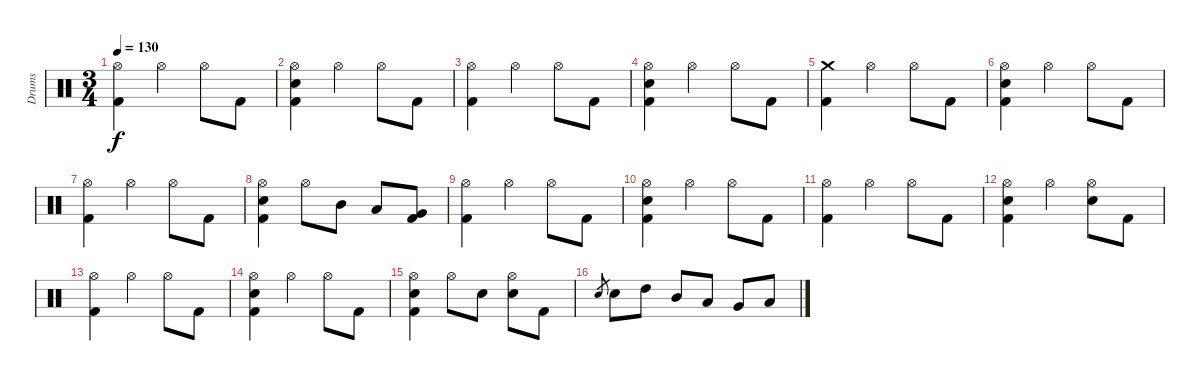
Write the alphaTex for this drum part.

\track ("Drums" "Drums") {instrument percussion}
\staff {score}
\articulation defaults
\ts (3 4)
\tempo 130
\clef neutral
\ks c
("Hi-Hat (open)" "Kick (hit) 2").4{dy f} "Hi-Hat (open)".4 "Hi-Hat (open)".8 "Kick (hit) 2".8 |
("Hi-Hat (open)" "Electric Snare (hit)" "Kick (hit) 2").4 "Hi-Hat (open)".4 "Hi-Hat (open)".8 "Kick (hit) 2".8 |
("Hi-Hat (open)" "Kick (hit) 2").4 "Hi-Hat (open)".4 "Hi-Hat (open)".8 "Kick (hit) 2".8 |
("Hi-Hat (open)" "Electric Snare (hit)" "Kick (hit) 2").4 "Hi-Hat (open)".4 "Hi-Hat (open)".8 "Kick (hit) 2".8 |
("Crash medium (hit)" "Kick (hit) 2").4 "Hi-Hat (open)".4 "Hi-Hat (open)".8 "Kick (hit) 2".8 |
("Hi-Hat (open)" "Electric Snare (hit)" "Kick (hit) 2").4 "Hi-Hat (open)".4 "Hi-Hat (open)".8 "Kick (hit) 2".8 |
("Hi-Hat (open)" "Kick (hit) 2").4 "Hi-Hat (open)".4 "Hi-Hat (open)".8 "Kick (hit) 2".8 |
("Hi-Hat (open)" "Electric Snare (hit)" "Kick (hit) 2").4 "Hi-Hat (open)".8 "Mid Tom (hit)".8 "Low Tom (hit)".8 ("Very Low Tom (hit)" "Kick (hit) 2").8 |
("Hi-Hat (open)" "Kick (hit) 2").4 "Hi-Hat (open)".4 "Hi-Hat (open)".8 "Kick (hit) 2".8 |
("Hi-Hat (open)" "Electric Snare (hit)" "Kick (hit) 2").4 "Hi-Hat (open)".4 "Hi-Hat (open)".8 "Kick (hit) 2".8 |
("Hi-Hat (open)" "Kick (hit) 2").4 "Hi-Hat (open)".4 "Hi-Hat (open)".8 "Kick (hit) 2".8 |
("Hi-Hat (open)" "Electric Snare (hit)" "Kick (hit) 2").4 "Hi-Hat (open)".4 ("Hi-Hat (open)" "Electric Snare (hit)").8 "Kick (hit) 2".8 |
("Hi-Hat (open)" "Kick (hit) 2").4 "Hi-Hat (open)".4 "Hi-Hat (open)".8 "Kick (hit) 2".8 |
("Hi-Hat (open)" "Electric Snare (hit)" "Kick (hit) 2").4 "Hi-Hat (open)".4 "Hi-Hat (open)".8 "Kick (hit) 2".8 |
("Hi-Hat (open)" "Electric Snare (hit)" "Kick (hit) 2").4 "Hi-Hat (open)".8 "Electric Snare (hit)".8 ("Hi-Hat (open)" "Electric Snare (hit)").8 "Kick (hit) 2".8 |
"Electric Snare (hit)".8{gr} "Electric Snare (hit)".8 "High Tom (hit)".8 "Mid Tom (hit)".8 "Low Tom (hit)".8 "Very Low Tom (hit)".8 "Low Floor Tom (hit)".8
